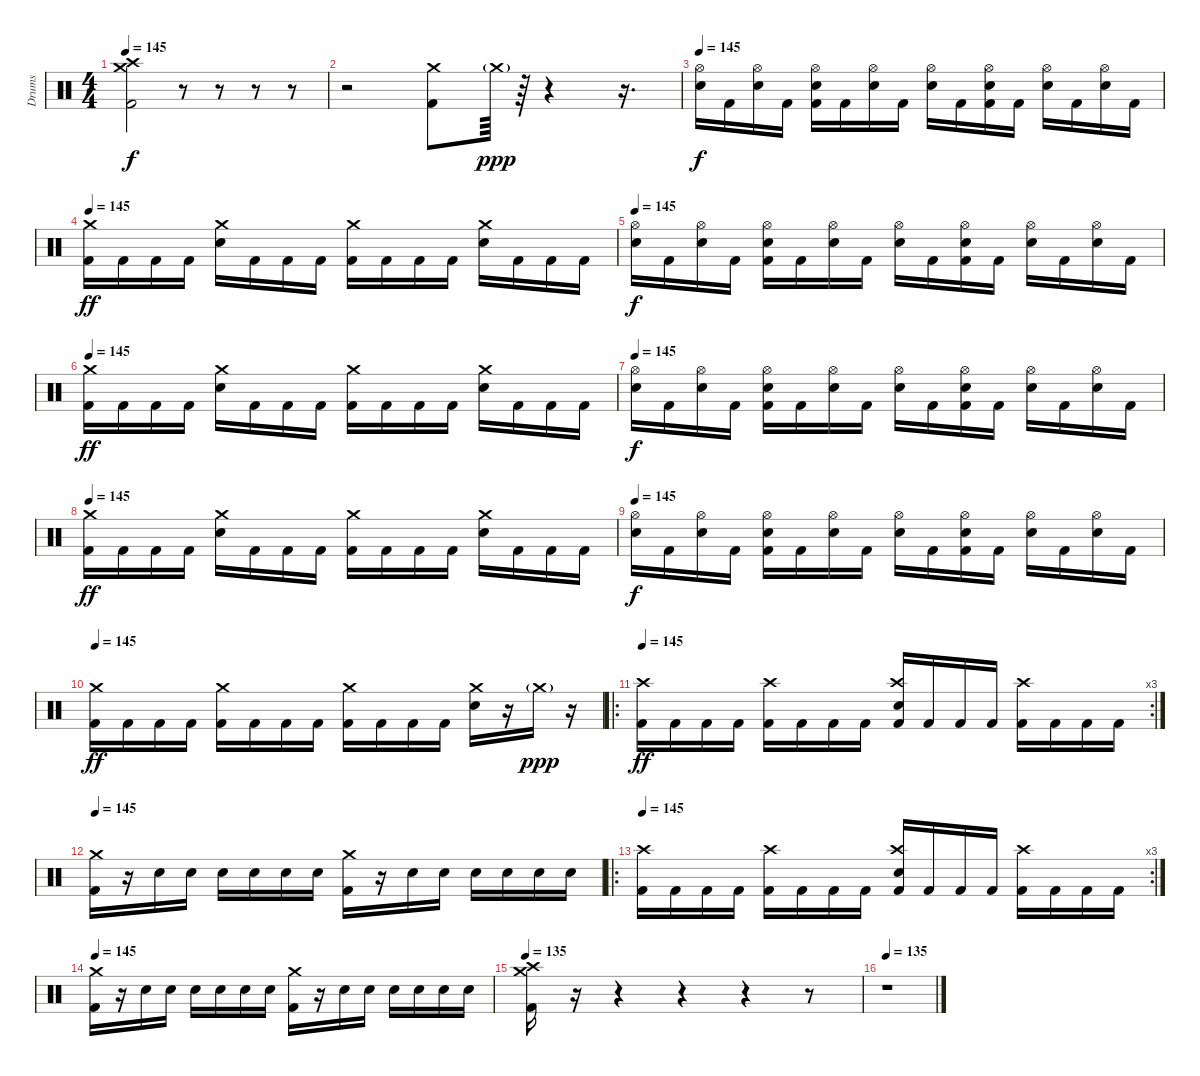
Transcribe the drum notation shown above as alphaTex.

\track ("Drums" "Drums") {instrument percussion}
\staff {score}
\articulation defaults
\ts (4 4)
\tempo 145
\clef neutral
\ks c
("Kick (hit) 2" "Crash medium (hit)" "Crash high (hit)").2{dy f} r.8 r.8 r.8 r.8 |
r.2 ("Kick (hit) 2" "Crash medium (hit)").8 "Crash medium (hit)"{g}.64{dy ppp} r.64 r.4 r.16{d} |
\tempo 145
("Electric Snare (hit)" "Hi-Hat (open)").16{dy f} "Kick (hit) 2".16 ("Electric Snare (hit)" "Hi-Hat (open)").16 "Kick (hit) 2".16 ("Kick (hit) 2" "Electric Snare (hit)" "Hi-Hat (open)").16 "Kick (hit) 2".16 ("Electric Snare (hit)" "Hi-Hat (open)").16 "Kick (hit) 2".16 ("Electric Snare (hit)" "Hi-Hat (open)").16 "Kick (hit) 2".16 ("Kick (hit) 2" "Electric Snare (hit)" "Hi-Hat (open)").16 "Kick (hit) 2".16 ("Electric Snare (hit)" "Hi-Hat (open)").16 "Kick (hit) 2".16 ("Electric Snare (hit)" "Hi-Hat (open)").16 "Kick (hit) 2".16 |
\tempo 145
("Kick (hit) 2" "Crash medium (hit)").16{dy ff} "Kick (hit) 2".16 "Kick (hit) 2".16 "Kick (hit) 2".16 ("Electric Snare (hit)" "Crash medium (hit)").16 "Kick (hit) 2".16 "Kick (hit) 2".16 "Kick (hit) 2".16 ("Kick (hit) 2" "Crash medium (hit)").16 "Kick (hit) 2".16 "Kick (hit) 2".16 "Kick (hit) 2".16 ("Electric Snare (hit)" "Crash medium (hit)").16 "Kick (hit) 2".16 "Kick (hit) 2".16 "Kick (hit) 2".16 |
\tempo 145
("Electric Snare (hit)" "Hi-Hat (open)").16{dy f} "Kick (hit) 2".16 ("Electric Snare (hit)" "Hi-Hat (open)").16 "Kick (hit) 2".16 ("Kick (hit) 2" "Electric Snare (hit)" "Hi-Hat (open)").16 "Kick (hit) 2".16 ("Electric Snare (hit)" "Hi-Hat (open)").16 "Kick (hit) 2".16 ("Electric Snare (hit)" "Hi-Hat (open)").16 "Kick (hit) 2".16 ("Kick (hit) 2" "Electric Snare (hit)" "Hi-Hat (open)").16 "Kick (hit) 2".16 ("Electric Snare (hit)" "Hi-Hat (open)").16 "Kick (hit) 2".16 ("Electric Snare (hit)" "Hi-Hat (open)").16 "Kick (hit) 2".16 |
\tempo 145
("Kick (hit) 2" "Crash medium (hit)").16{dy ff} "Kick (hit) 2".16 "Kick (hit) 2".16 "Kick (hit) 2".16 ("Electric Snare (hit)" "Crash medium (hit)").16 "Kick (hit) 2".16 "Kick (hit) 2".16 "Kick (hit) 2".16 ("Kick (hit) 2" "Crash medium (hit)").16 "Kick (hit) 2".16 "Kick (hit) 2".16 "Kick (hit) 2".16 ("Electric Snare (hit)" "Crash medium (hit)").16 "Kick (hit) 2".16 "Kick (hit) 2".16 "Kick (hit) 2".16 |
\tempo 145
("Electric Snare (hit)" "Hi-Hat (open)").16{dy f} "Kick (hit) 2".16 ("Electric Snare (hit)" "Hi-Hat (open)").16 "Kick (hit) 2".16 ("Kick (hit) 2" "Electric Snare (hit)" "Hi-Hat (open)").16 "Kick (hit) 2".16 ("Electric Snare (hit)" "Hi-Hat (open)").16 "Kick (hit) 2".16 ("Electric Snare (hit)" "Hi-Hat (open)").16 "Kick (hit) 2".16 ("Kick (hit) 2" "Electric Snare (hit)" "Hi-Hat (open)").16 "Kick (hit) 2".16 ("Electric Snare (hit)" "Hi-Hat (open)").16 "Kick (hit) 2".16 ("Electric Snare (hit)" "Hi-Hat (open)").16 "Kick (hit) 2".16 |
\tempo 145
("Kick (hit) 2" "Crash medium (hit)").16{dy ff} "Kick (hit) 2".16 "Kick (hit) 2".16 "Kick (hit) 2".16 ("Electric Snare (hit)" "Crash medium (hit)").16 "Kick (hit) 2".16 "Kick (hit) 2".16 "Kick (hit) 2".16 ("Kick (hit) 2" "Crash medium (hit)").16 "Kick (hit) 2".16 "Kick (hit) 2".16 "Kick (hit) 2".16 ("Electric Snare (hit)" "Crash medium (hit)").16 "Kick (hit) 2".16 "Kick (hit) 2".16 "Kick (hit) 2".16 |
\tempo 145
("Electric Snare (hit)" "Hi-Hat (open)").16{dy f} "Kick (hit) 2".16 ("Electric Snare (hit)" "Hi-Hat (open)").16 "Kick (hit) 2".16 ("Kick (hit) 2" "Electric Snare (hit)" "Hi-Hat (open)").16 "Kick (hit) 2".16 ("Electric Snare (hit)" "Hi-Hat (open)").16 "Kick (hit) 2".16 ("Electric Snare (hit)" "Hi-Hat (open)").16 "Kick (hit) 2".16 ("Kick (hit) 2" "Electric Snare (hit)" "Hi-Hat (open)").16 "Kick (hit) 2".16 ("Electric Snare (hit)" "Hi-Hat (open)").16 "Kick (hit) 2".16 ("Electric Snare (hit)" "Hi-Hat (open)").16 "Kick (hit) 2".16 |
\tempo 145
("Kick (hit) 2" "Crash medium (hit)").16{dy ff} "Kick (hit) 2".16 "Kick (hit) 2".16 "Kick (hit) 2".16 ("Kick (hit) 2" "Crash medium (hit)").16 "Kick (hit) 2".16 "Kick (hit) 2".16 "Kick (hit) 2".16 ("Kick (hit) 2" "Crash medium (hit)").16 "Kick (hit) 2".16 "Kick (hit) 2".16 "Kick (hit) 2".16 ("Electric Snare (hit)" "Crash medium (hit)").16 r.16 "Crash medium (hit)"{g}.16{dy ppp} r.16 |
\ro
\rc 3
\tempo 145
("Kick (hit) 2" "Crash high (hit)").16{dy ff} "Kick (hit) 2".16 "Kick (hit) 2".16 "Kick (hit) 2".16 ("Kick (hit) 2" "Crash high (hit)").16 "Kick (hit) 2".16 "Kick (hit) 2".16 "Kick (hit) 2".16 ("Kick (hit) 2" "Electric Snare (hit)" "Crash high (hit)").16 "Kick (hit) 2".16 "Kick (hit) 2".16 "Kick (hit) 2".16 ("Kick (hit) 2" "Crash high (hit)").16 "Kick (hit) 2".16 "Kick (hit) 2".16 "Kick (hit) 2".16 |
\tempo 145
("Crash medium (hit)" "Kick (hit) 2").16 r.16 "Electric Snare (hit)".16 "Electric Snare (hit)".16 "Electric Snare (hit)".16 "Electric Snare (hit)".16 "Electric Snare (hit)".16 "Electric Snare (hit)".16 ("Crash medium (hit)" "Kick (hit) 2").16 r.16 "Electric Snare (hit)".16 "Electric Snare (hit)".16 "Electric Snare (hit)".16 "Electric Snare (hit)".16 "Electric Snare (hit)".16 "Electric Snare (hit)".16 |
\ro
\rc 3
\tempo 145
("Kick (hit) 2" "Crash high (hit)").16 "Kick (hit) 2".16 "Kick (hit) 2".16 "Kick (hit) 2".16 ("Kick (hit) 2" "Crash high (hit)").16 "Kick (hit) 2".16 "Kick (hit) 2".16 "Kick (hit) 2".16 ("Kick (hit) 2" "Electric Snare (hit)" "Crash high (hit)").16 "Kick (hit) 2".16 "Kick (hit) 2".16 "Kick (hit) 2".16 ("Kick (hit) 2" "Crash high (hit)").16 "Kick (hit) 2".16 "Kick (hit) 2".16 "Kick (hit) 2".16 |
\tempo 145
("Crash medium (hit)" "Kick (hit) 2").16 r.16 "Electric Snare (hit)".16 "Electric Snare (hit)".16 "Electric Snare (hit)".16 "Electric Snare (hit)".16 "Electric Snare (hit)".16 "Electric Snare (hit)".16 ("Crash medium (hit)" "Kick (hit) 2").16 r.16 "Electric Snare (hit)".16 "Electric Snare (hit)".16 "Electric Snare (hit)".16 "Electric Snare (hit)".16 "Electric Snare (hit)".16 "Electric Snare (hit)".16 |
\tempo 135
("Kick (hit) 2" "Crash medium (hit)" "Crash high (hit)").16 r.16 r.4 r.4 r.4 r.8 |
\tempo 135
r.1
